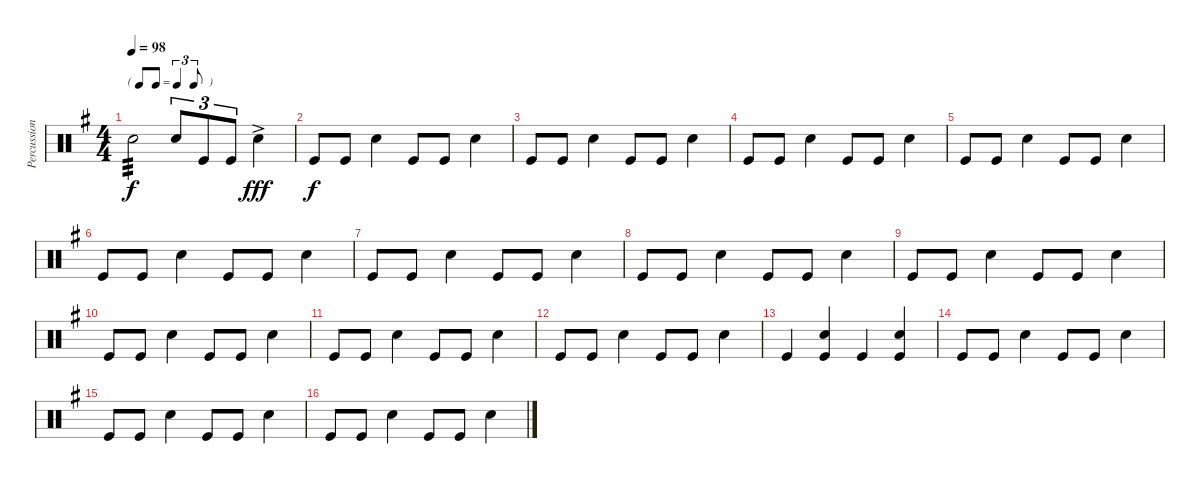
\track ("Percussion" "Percussion") {instrument percussion}
\staff {score}
\articulation defaults
\ts (4 4)
\tf triplet8th
\tempo 98
\clef neutral
\ks g "Snare (hit) 2".2{tp 3 dy f} "Snare (hit) 2".8{tu (3 2)} "Kick (hit)".8{tu (3 2)} "Kick (hit)".8{tu (3 2)} "Snare (hit) 2"{ac}.4{dy fff}
|
"Kick (hit)".8{dy f} "Kick (hit)".8 "Snare (hit) 2".4 "Kick (hit)".8 "Kick (hit)".8 "Snare (hit) 2".4 |
"Kick (hit)".8 "Kick (hit)".8 "Snare (hit) 2".4 "Kick (hit)".8 "Kick (hit)".8 "Snare (hit) 2".4 |
"Kick (hit)".8 "Kick (hit)".8 "Snare (hit) 2".4 "Kick (hit)".8 "Kick (hit)".8 "Snare (hit) 2".4 |
"Kick (hit)".8 "Kick (hit)".8 "Snare (hit) 2".4 "Kick (hit)".8 "Kick (hit)".8 "Snare (hit) 2".4 |
"Kick (hit)".8 "Kick (hit)".8 "Snare (hit) 2".4 "Kick (hit)".8 "Kick (hit)".8 "Snare (hit) 2".4 |
"Kick (hit)".8 "Kick (hit)".8 "Snare (hit) 2".4 "Kick (hit)".8 "Kick (hit)".8 "Snare (hit) 2".4 |
"Kick (hit)".8 "Kick (hit)".8 "Snare (hit) 2".4 "Kick (hit)".8 "Kick (hit)".8 "Snare (hit) 2".4 |
"Kick (hit)".8 "Kick (hit)".8 "Snare (hit) 2".4 "Kick (hit)".8 "Kick (hit)".8 "Snare (hit) 2".4 |
"Kick (hit)".8 "Kick (hit)".8 "Snare (hit) 2".4 "Kick (hit)".8 "Kick (hit)".8 "Snare (hit) 2".4 |
"Kick (hit)".8 "Kick (hit)".8 "Snare (hit) 2".4 "Kick (hit)".8 "Kick (hit)".8 "Snare (hit) 2".4 |
"Kick (hit)".8 "Kick (hit)".8 "Snare (hit) 2".4 "Kick (hit)".8 "Kick (hit)".8 "Snare (hit) 2".4 |
"Kick (hit)".4 ("Snare (hit) 2" "Kick (hit)").4 "Kick (hit)".4 ("Snare (hit) 2" "Kick (hit)").4 |
"Kick (hit)".8 "Kick (hit)".8 "Snare (hit) 2".4 "Kick (hit)".8 "Kick (hit)".8 "Snare (hit) 2".4 |
"Kick (hit)".8 "Kick (hit)".8 "Snare (hit) 2".4 "Kick (hit)".8 "Kick (hit)".8 "Snare (hit) 2".4 |
"Kick (hit)".8 "Kick (hit)".8 "Snare (hit) 2".4 "Kick (hit)".8 "Kick (hit)".8 "Snare (hit) 2".4
